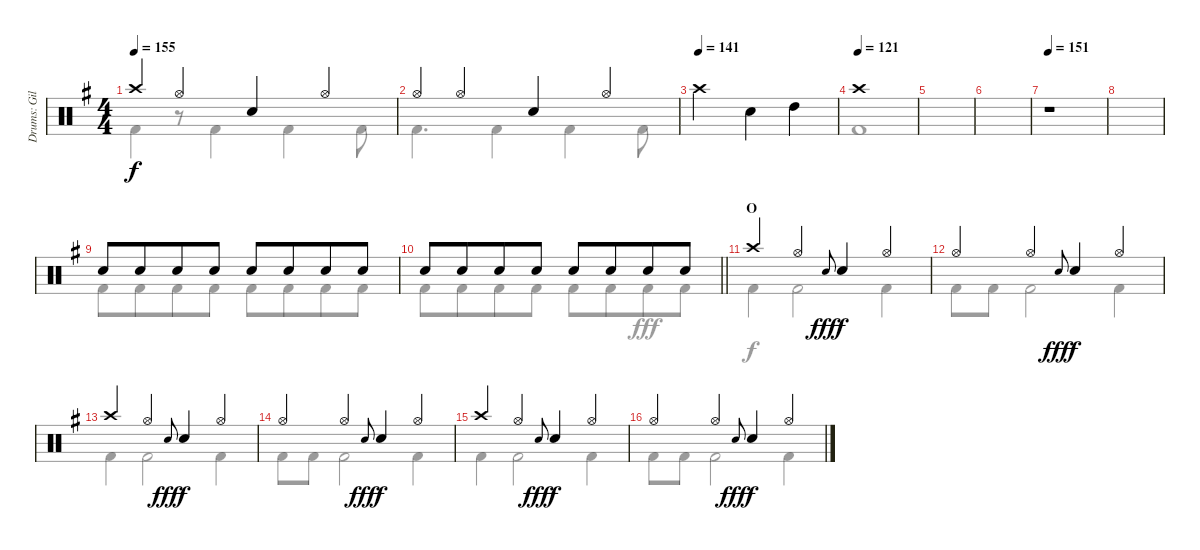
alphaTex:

\track ("Drums: Gil" "Drums: Gil") {instrument percussion}
\staff {score}
\articulation defaults
\voice
\ts (4 4)
\tempo 155
\clef neutral
\ks g "Crash high (hit)".4{dy f} "Hi-Hat (open)".4{beam merge} "Snare (hit) 2".4 "Hi-Hat (open)".4
|
"Hi-Hat (open)".4 "Hi-Hat (open)".4{beam merge} "Snare (hit) 2".4 "Hi-Hat (open)".4 |
\tempo (141)
"Crash high (hit)".2 "Snare (hit) 2".4 "High Tom (hit)".4 |
\tempo (121)
"Crash high (hit)".1 |
|
|
\tempo 151
r.1{volume 0} |
|
"Snare (hit) 2".8{volume 13} "Snare (hit) 2".8{beam merge} "Snare (hit) 2".8 "Snare (hit) 2".8 "Snare (hit) 2".8 "Snare (hit) 2".8{beam merge} "Snare (hit) 2".8 "Snare (hit) 2".8 |
\barLineRight lightlight "Snare (hit) 2".8 "Snare (hit) 2".8{beam merge} "Snare (hit) 2".8 "Snare (hit) 2".8 "Snare (hit) 2".8 "Snare (hit) 2".8{beam merge} "Snare (hit) 2".8 "Snare (hit) 2".8
|
\section ("" "O")
"Crash high (hit)".4 "Hi-Hat (open)".4 "Electric Snare (hit)".8{gr onbeat dy fff} "Snare (hit) 2".4{dy f} "Hi-Hat (open)".4 |
"Hi-Hat (open)".4 "Hi-Hat (open)".4 "Electric Snare (hit)".8{gr onbeat dy fff} "Snare (hit) 2".4{dy f} "Hi-Hat (open)".4 |
"Crash high (hit)".4 "Hi-Hat (open)".4 "Electric Snare (hit)".8{gr onbeat dy fff} "Snare (hit) 2".4{dy f} "Hi-Hat (open)".4 |
"Hi-Hat (open)".4 "Hi-Hat (open)".4 "Electric Snare (hit)".8{gr onbeat dy fff} "Snare (hit) 2".4{dy f} "Hi-Hat (open)".4 |
"Crash high (hit)".4 "Hi-Hat (open)".4 "Electric Snare (hit)".8{gr onbeat dy fff} "Snare (hit) 2".4{dy f} "Hi-Hat (open)".4 |
"Hi-Hat (open)".4 "Hi-Hat (open)".4 "Electric Snare (hit)".8{gr onbeat dy fff} "Snare (hit) 2".4{dy f} "Hi-Hat (open)".4
\voice
\clef neutral
\ottava regular
\simile none
\ks g "Kick (hit) 2".4{dy f}
r.8 "Kick (hit) 2".4 "Kick (hit) 2".4 "Kick (hit) 2".8 |
"Kick (hit) 2".4{d} "Kick (hit) 2".4 "Kick (hit) 2".4 "Kick (hit) 2".8 |
|
"Kick (hit) 2".1 |
|
|
|
|
"Kick (hit) 2".8 "Kick (hit) 2".8{beam merge} "Kick (hit) 2".8 "Kick (hit) 2".8 "Kick (hit) 2".8 "Kick (hit) 2".8{beam merge} "Kick (hit) 2".8 "Kick (hit) 2".8 |
\barLineRight lightlight "Kick (hit) 2".8 "Kick (hit) 2".8{beam merge} "Kick (hit) 2".8 "Kick (hit) 2".8 "Kick (hit) 2".8 "Kick (hit) 2".8{beam merge} "Kick (hit) 2".8{dy fff} "Kick (hit) 2".8
|
"Kick (hit) 2".4{dy f} "Kick (hit) 2".2 "Kick (hit) 2".4 |
"Kick (hit) 2".8 "Kick (hit) 2".8 "Kick (hit) 2".2 "Kick (hit) 2".4 |
"Kick (hit) 2".4 "Kick (hit) 2".2 "Kick (hit) 2".4 |
"Kick (hit) 2".8 "Kick (hit) 2".8 "Kick (hit) 2".2 "Kick (hit) 2".4 |
"Kick (hit) 2".4 "Kick (hit) 2".2 "Kick (hit) 2".4 |
"Kick (hit) 2".8 "Kick (hit) 2".8 "Kick (hit) 2".2 "Kick (hit) 2".4
